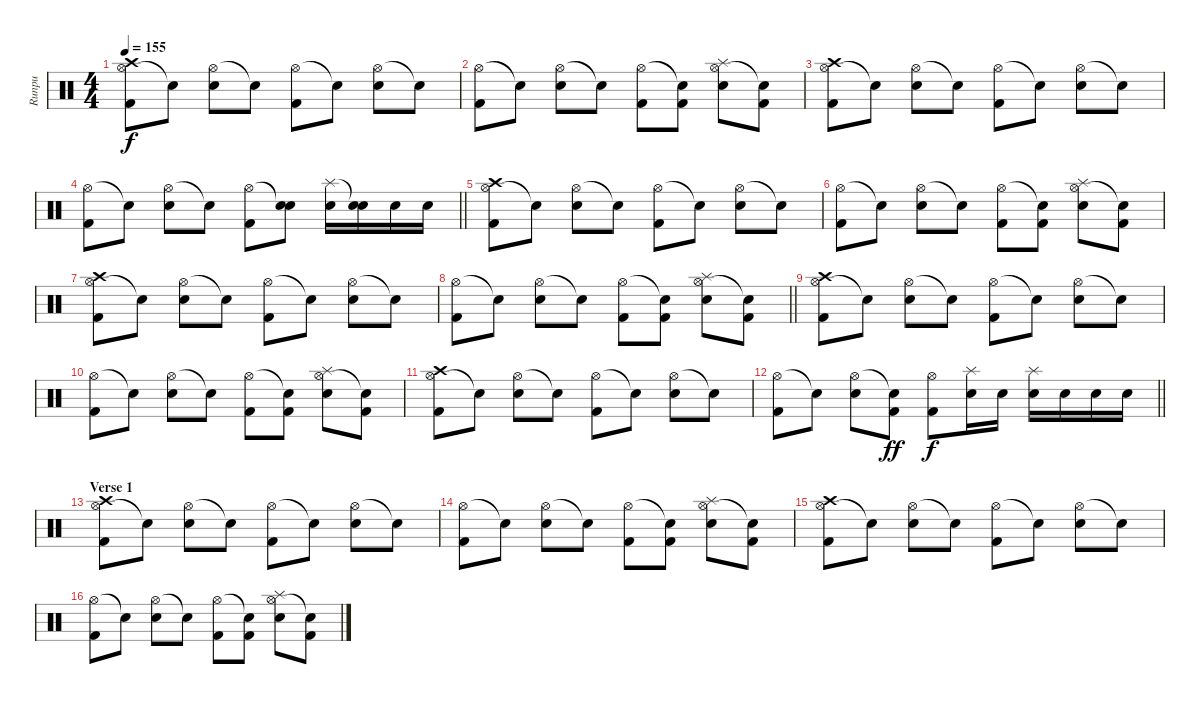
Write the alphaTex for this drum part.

\track ("Runpu" "Runpu") {instrument percussion}
\staff {score}
\articulation defaults
\ts (4 4)
\tempo 155
\clef neutral
\ks c
("Hi-Hat (open)" "Crash high (hit)" "Kick (hit) 2").8{dy f} "Snare (hit)"{t}.8 ("Hi-Hat (open)" "Snare (hit) 2").8 "Snare (hit)"{t}.8 ("Hi-Hat (open)" "Kick (hit) 2").8 "Snare (hit)"{t}.8 ("Hi-Hat (open)" "Snare (hit) 2").8 "Snare (hit)"{t}.8 |
("Hi-Hat (open)" "Kick (hit) 2").8 "Snare (hit)"{t}.8 ("Hi-Hat (open)" "Snare (hit) 2").8 "Snare (hit)"{t}.8 ("Hi-Hat (open)" "Kick (hit) 2").8 ("Snare (hit)"{t} "Kick (hit) 2").8 ("Hi-Hat (open)" "Splash (hit)" "Snare (hit) 2").8 ("Snare (hit)"{t} "Kick (hit) 2").8 |
("Hi-Hat (open)" "Crash high (hit)" "Kick (hit) 2").8 "Snare (hit)"{t}.8 ("Hi-Hat (open)" "Snare (hit) 2").8 "Snare (hit)"{t}.8 ("Hi-Hat (open)" "Kick (hit) 2").8 "Snare (hit)"{t}.8 ("Hi-Hat (open)" "Snare (hit) 2").8 "Snare (hit)"{t}.8 |
\barLineRight lightlight
("Hi-Hat (open)" "Kick (hit) 2").8 "Snare (hit)"{t}.8 ("Hi-Hat (open)" "Snare (hit) 2").8 "Snare (hit)"{t}.8 ("Hi-Hat (open)" "Kick (hit) 2").8 ("Snare (hit)"{t} "Snare (hit) 2").8 ("Splash (hit)" "Snare (hit) 2").16 ("Snare (hit)"{t} "Snare (hit) 2").16 "Snare (hit) 2".16 "Snare (hit) 2".16 |
("Hi-Hat (open)" "Crash high (hit)" "Kick (hit) 2").8 "Snare (hit)"{t}.8 ("Hi-Hat (open)" "Snare (hit) 2").8 "Snare (hit)"{t}.8 ("Hi-Hat (open)" "Kick (hit) 2").8 "Snare (hit)"{t}.8 ("Hi-Hat (open)" "Snare (hit) 2").8 "Snare (hit)"{t}.8 |
("Hi-Hat (open)" "Kick (hit) 2").8 "Snare (hit)"{t}.8 ("Hi-Hat (open)" "Snare (hit) 2").8 "Snare (hit)"{t}.8 ("Hi-Hat (open)" "Kick (hit) 2").8 ("Snare (hit)"{t} "Kick (hit) 2").8 ("Hi-Hat (open)" "Splash (hit)" "Snare (hit) 2").8 ("Snare (hit)"{t} "Kick (hit) 2").8 |
("Hi-Hat (open)" "Crash high (hit)" "Kick (hit) 2").8 "Snare (hit)"{t}.8 ("Hi-Hat (open)" "Snare (hit) 2").8 "Snare (hit)"{t}.8 ("Hi-Hat (open)" "Kick (hit) 2").8 "Snare (hit)"{t}.8 ("Hi-Hat (open)" "Snare (hit) 2").8 "Snare (hit)"{t}.8 |
\barLineRight lightlight
("Hi-Hat (open)" "Kick (hit) 2").8 "Snare (hit)"{t}.8 ("Hi-Hat (open)" "Snare (hit) 2").8 "Snare (hit)"{t}.8 ("Hi-Hat (open)" "Kick (hit) 2").8 ("Snare (hit)"{t} "Kick (hit) 2").8 ("Hi-Hat (open)" "Splash (hit)" "Snare (hit) 2").8 ("Snare (hit)"{t} "Kick (hit) 2").8 |
("Hi-Hat (open)" "Crash high (hit)" "Kick (hit) 2").8 "Snare (hit)"{t}.8 ("Hi-Hat (open)" "Snare (hit) 2").8 "Snare (hit)"{t}.8 ("Hi-Hat (open)" "Kick (hit) 2").8 "Snare (hit)"{t}.8 ("Hi-Hat (open)" "Snare (hit) 2").8 "Snare (hit)"{t}.8 |
("Hi-Hat (open)" "Kick (hit) 2").8 "Snare (hit)"{t}.8 ("Hi-Hat (open)" "Snare (hit) 2").8 "Snare (hit)"{t}.8 ("Hi-Hat (open)" "Kick (hit) 2").8 ("Snare (hit)"{t} "Kick (hit) 2").8 ("Hi-Hat (open)" "Splash (hit)" "Snare (hit) 2").8 ("Snare (hit)"{t} "Kick (hit) 2").8 |
("Hi-Hat (open)" "Crash high (hit)" "Kick (hit) 2").8 "Snare (hit)"{t}.8 ("Hi-Hat (open)" "Snare (hit) 2").8 "Snare (hit)"{t}.8 ("Hi-Hat (open)" "Kick (hit) 2").8 "Snare (hit)"{t}.8 ("Hi-Hat (open)" "Snare (hit) 2").8 "Snare (hit)"{t}.8 |
\barLineRight lightlight
("Hi-Hat (open)" "Kick (hit) 2").8 "Snare (hit)"{t}.8 ("Hi-Hat (open)" "Snare (hit) 2").8 ("Snare (hit)"{t} "Kick (hit) 2").8{dy ff} ("Hi-Hat (open)" "Kick (hit) 2").8{dy f} ("Splash (hit)" "Snare (hit) 2").16 "Snare (hit) 2".16 ("Splash (hit)" "Snare (hit) 2").16 "Snare (hit) 2".16 "Snare (hit) 2".16 "Snare (hit) 2".16 |
\section ("" "Verse 1")
("Hi-Hat (open)" "Crash high (hit)" "Kick (hit) 2").8 "Snare (hit)"{t}.8 ("Hi-Hat (open)" "Snare (hit) 2").8 "Snare (hit)"{t}.8 ("Hi-Hat (open)" "Kick (hit) 2").8 "Snare (hit)"{t}.8 ("Hi-Hat (open)" "Snare (hit) 2").8 "Snare (hit)"{t}.8 |
("Hi-Hat (open)" "Kick (hit) 2").8 "Snare (hit)"{t}.8 ("Hi-Hat (open)" "Snare (hit) 2").8 "Snare (hit)"{t}.8 ("Hi-Hat (open)" "Kick (hit) 2").8 ("Snare (hit)"{t} "Kick (hit) 2").8 ("Hi-Hat (open)" "Splash (hit)" "Snare (hit) 2").8 ("Snare (hit)"{t} "Kick (hit) 2").8 |
("Hi-Hat (open)" "Crash high (hit)" "Kick (hit) 2").8 "Snare (hit)"{t}.8 ("Hi-Hat (open)" "Snare (hit) 2").8 "Snare (hit)"{t}.8 ("Hi-Hat (open)" "Kick (hit) 2").8 "Snare (hit)"{t}.8 ("Hi-Hat (open)" "Snare (hit) 2").8 "Snare (hit)"{t}.8 |
("Hi-Hat (open)" "Kick (hit) 2").8 "Snare (hit)"{t}.8 ("Hi-Hat (open)" "Snare (hit) 2").8 "Snare (hit)"{t}.8 ("Hi-Hat (open)" "Kick (hit) 2").8 ("Snare (hit)"{t} "Kick (hit) 2").8 ("Hi-Hat (open)" "Splash (hit)" "Snare (hit) 2").8 ("Snare (hit)"{t} "Kick (hit) 2").8
